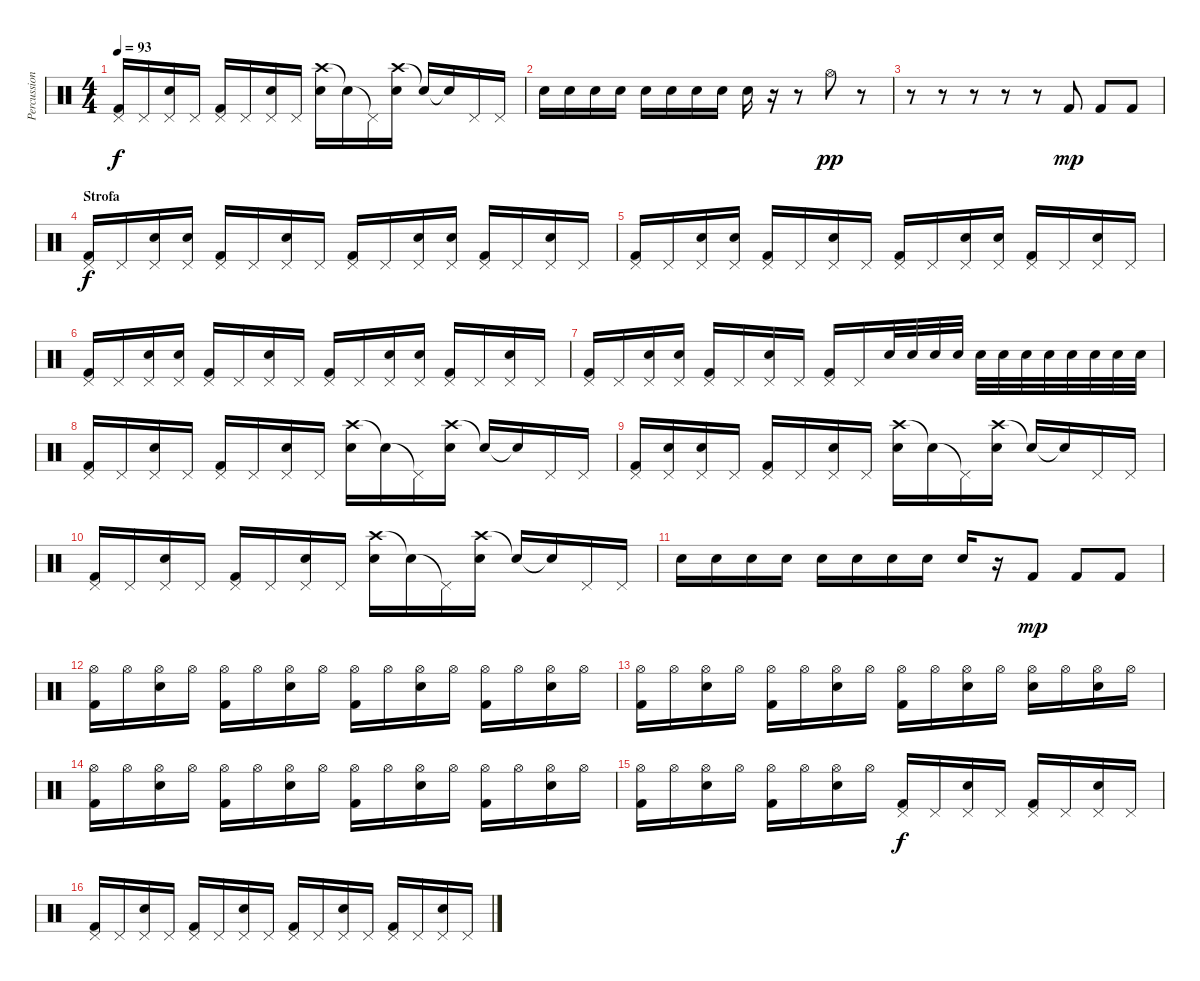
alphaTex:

\track ("Percussioni" "Percussion") {instrument percussion}
\staff {score}
\articulation defaults
\ts (4 4)
\tempo 93
\clef neutral
\ks c
("Pedal Hi-Hat (hit)" "Kick (hit) 2").16{dy f} "Pedal Hi-Hat (hit)".16 ("Pedal Hi-Hat (hit)" "Electric Snare (hit)").16 "Pedal Hi-Hat (hit)".16 ("Pedal Hi-Hat (hit)" "Kick (hit) 2").16 "Pedal Hi-Hat (hit)".16 ("Pedal Hi-Hat (hit)" "Electric Snare (hit)").16 "Pedal Hi-Hat (hit)".16 ("Crash high (hit)" "Electric Snare (hit)").16 "Snare (hit)"{t}.16 "Pedal Hi-Hat (hit)"{t}.16 ("Crash high (hit)" "Electric Snare (hit)").16 "Electric Snare (hit)"{t}.16 "Snare (hit)"{t}.16 "Pedal Hi-Hat (hit)".16 "Pedal Hi-Hat (hit)".16 |
"Electric Snare (hit)".16 "Electric Snare (hit)".16 "Electric Snare (hit)".16 "Electric Snare (hit)".16 "Electric Snare (hit)".16 "Electric Snare (hit)".16 "Electric Snare (hit)".16 "Electric Snare (hit)".16 "Electric Snare (hit)".16 r.16 r.8 "Hi-Hat (open)".8{dy pp} r.8 |
r.8 r.8 r.8 r.8 r.8 "Kick (hit) 2".8{dy mp} "Kick (hit) 2".8 "Kick (hit) 2".8 |
\section ("" "Strofa")
("Pedal Hi-Hat (hit)" "Kick (hit) 2").16{dy f} "Pedal Hi-Hat (hit)".16 ("Pedal Hi-Hat (hit)" "Electric Snare (hit)").16 ("Pedal Hi-Hat (hit)" "Electric Snare (hit)").16 ("Pedal Hi-Hat (hit)" "Kick (hit) 2").16 "Pedal Hi-Hat (hit)".16 ("Pedal Hi-Hat (hit)" "Electric Snare (hit)").16 "Pedal Hi-Hat (hit)".16 ("Pedal Hi-Hat (hit)" "Kick (hit) 2").16 "Pedal Hi-Hat (hit)".16 ("Pedal Hi-Hat (hit)" "Electric Snare (hit)").16 ("Pedal Hi-Hat (hit)" "Electric Snare (hit)").16 ("Pedal Hi-Hat (hit)" "Kick (hit) 2").16 "Pedal Hi-Hat (hit)".16 ("Pedal Hi-Hat (hit)" "Electric Snare (hit)").16 "Pedal Hi-Hat (hit)".16 |
("Pedal Hi-Hat (hit)" "Kick (hit) 2").16 "Pedal Hi-Hat (hit)".16 ("Pedal Hi-Hat (hit)" "Electric Snare (hit)").16 ("Pedal Hi-Hat (hit)" "Electric Snare (hit)").16 ("Pedal Hi-Hat (hit)" "Kick (hit) 2").16 "Pedal Hi-Hat (hit)".16 ("Pedal Hi-Hat (hit)" "Electric Snare (hit)").16 "Pedal Hi-Hat (hit)".16 ("Pedal Hi-Hat (hit)" "Kick (hit) 2").16 "Pedal Hi-Hat (hit)".16 ("Pedal Hi-Hat (hit)" "Electric Snare (hit)").16 ("Pedal Hi-Hat (hit)" "Electric Snare (hit)").16 ("Pedal Hi-Hat (hit)" "Kick (hit) 2").16 "Pedal Hi-Hat (hit)".16 ("Pedal Hi-Hat (hit)" "Electric Snare (hit)").16 "Pedal Hi-Hat (hit)".16 |
("Pedal Hi-Hat (hit)" "Kick (hit) 2").16 "Pedal Hi-Hat (hit)".16 ("Pedal Hi-Hat (hit)" "Electric Snare (hit)").16 ("Pedal Hi-Hat (hit)" "Electric Snare (hit)").16 ("Pedal Hi-Hat (hit)" "Kick (hit) 2").16 "Pedal Hi-Hat (hit)".16 ("Pedal Hi-Hat (hit)" "Electric Snare (hit)").16 "Pedal Hi-Hat (hit)".16 ("Pedal Hi-Hat (hit)" "Kick (hit) 2").16 "Pedal Hi-Hat (hit)".16 ("Pedal Hi-Hat (hit)" "Electric Snare (hit)").16 ("Pedal Hi-Hat (hit)" "Electric Snare (hit)").16 ("Pedal Hi-Hat (hit)" "Kick (hit) 2").16 "Pedal Hi-Hat (hit)".16 ("Pedal Hi-Hat (hit)" "Electric Snare (hit)").16 "Pedal Hi-Hat (hit)".16 |
("Pedal Hi-Hat (hit)" "Kick (hit) 2").16 "Pedal Hi-Hat (hit)".16 ("Pedal Hi-Hat (hit)" "Electric Snare (hit)").16 ("Pedal Hi-Hat (hit)" "Electric Snare (hit)").16 ("Pedal Hi-Hat (hit)" "Kick (hit) 2").16 "Pedal Hi-Hat (hit)".16 ("Pedal Hi-Hat (hit)" "Electric Snare (hit)").16 "Pedal Hi-Hat (hit)".16 ("Pedal Hi-Hat (hit)" "Kick (hit) 2").16 "Pedal Hi-Hat (hit)".16 "Electric Snare (hit)".32 "Electric Snare (hit)".32 "Electric Snare (hit)".32 "Electric Snare (hit)".32 "Electric Snare (hit)".32 "Electric Snare (hit)".32 "Electric Snare (hit)".32 "Electric Snare (hit)".32 "Electric Snare (hit)".32 "Electric Snare (hit)".32 "Electric Snare (hit)".32 "Electric Snare (hit)".32 |
("Pedal Hi-Hat (hit)" "Kick (hit) 2").16 "Pedal Hi-Hat (hit)".16 ("Pedal Hi-Hat (hit)" "Electric Snare (hit)").16 "Pedal Hi-Hat (hit)".16 ("Pedal Hi-Hat (hit)" "Kick (hit) 2").16 "Pedal Hi-Hat (hit)".16 ("Pedal Hi-Hat (hit)" "Electric Snare (hit)").16 "Pedal Hi-Hat (hit)".16 ("Crash high (hit)" "Electric Snare (hit)").16 "Snare (hit)"{t}.16 "Pedal Hi-Hat (hit)"{t}.16 ("Crash high (hit)" "Electric Snare (hit)").16 "Electric Snare (hit)"{t}.16 "Snare (hit)"{t}.16 "Pedal Hi-Hat (hit)".16 "Pedal Hi-Hat (hit)".16 |
("Pedal Hi-Hat (hit)" "Kick (hit) 2").16 ("Pedal Hi-Hat (hit)" "Snare (hit)").16 ("Pedal Hi-Hat (hit)" "Electric Snare (hit)").16 "Pedal Hi-Hat (hit)".16 ("Pedal Hi-Hat (hit)" "Kick (hit) 2").16 "Pedal Hi-Hat (hit)".16 ("Pedal Hi-Hat (hit)" "Electric Snare (hit)").16 "Pedal Hi-Hat (hit)".16 ("Crash high (hit)" "Electric Snare (hit)").16 "Snare (hit)"{t}.16 "Pedal Hi-Hat (hit)"{t}.16 ("Crash high (hit)" "Electric Snare (hit)").16 "Electric Snare (hit)"{t}.16 "Snare (hit)"{t}.16 "Pedal Hi-Hat (hit)".16 "Pedal Hi-Hat (hit)".16 |
("Pedal Hi-Hat (hit)" "Kick (hit) 2").16 "Pedal Hi-Hat (hit)".16 ("Pedal Hi-Hat (hit)" "Electric Snare (hit)").16 "Pedal Hi-Hat (hit)".16 ("Pedal Hi-Hat (hit)" "Kick (hit) 2").16 "Pedal Hi-Hat (hit)".16 ("Pedal Hi-Hat (hit)" "Electric Snare (hit)").16 "Pedal Hi-Hat (hit)".16 ("Crash high (hit)" "Electric Snare (hit)").16 "Snare (hit)"{t}.16 "Pedal Hi-Hat (hit)"{t}.16 ("Crash high (hit)" "Electric Snare (hit)").16 "Electric Snare (hit)"{t}.16 "Snare (hit)"{t}.16 "Pedal Hi-Hat (hit)".16 "Pedal Hi-Hat (hit)".16 |
"Electric Snare (hit)".16 "Electric Snare (hit)".16 "Electric Snare (hit)".16 "Electric Snare (hit)".16 "Electric Snare (hit)".16 "Electric Snare (hit)".16 "Electric Snare (hit)".16 "Electric Snare (hit)".16 "Electric Snare (hit)".16 r.16 "Kick (hit) 2".8{dy mp} "Kick (hit) 2".8 "Kick (hit) 2".8 |
("Hi-Hat (open)" "Kick (hit) 2").16 "Hi-Hat (open)".16 ("Hi-Hat (open)" "Electric Snare (hit)").16 "Hi-Hat (open)".16 ("Hi-Hat (open)" "Kick (hit) 2").16 "Hi-Hat (open)".16 ("Hi-Hat (open)" "Electric Snare (hit)").16 "Hi-Hat (open)".16 ("Hi-Hat (open)" "Kick (hit) 2").16 "Hi-Hat (open)".16 ("Hi-Hat (open)" "Electric Snare (hit)").16 "Hi-Hat (open)".16 ("Hi-Hat (open)" "Kick (hit) 2").16 "Hi-Hat (open)".16 ("Hi-Hat (open)" "Electric Snare (hit)").16 "Hi-Hat (open)".16 |
("Hi-Hat (open)" "Kick (hit) 2").16 "Hi-Hat (open)".16 ("Hi-Hat (open)" "Electric Snare (hit)").16 "Hi-Hat (open)".16 ("Hi-Hat (open)" "Kick (hit) 2").16 "Hi-Hat (open)".16 ("Hi-Hat (open)" "Electric Snare (hit)").16 "Hi-Hat (open)".16 ("Hi-Hat (open)" "Kick (hit) 2").16 "Hi-Hat (open)".16 ("Hi-Hat (open)" "Electric Snare (hit)").16 "Hi-Hat (open)".16 ("Hi-Hat (open)" "Electric Snare (hit)").16 "Hi-Hat (open)".16 ("Hi-Hat (open)" "Electric Snare (hit)").16 "Hi-Hat (open)".16 |
("Hi-Hat (open)" "Kick (hit) 2").16 "Hi-Hat (open)".16 ("Hi-Hat (open)" "Electric Snare (hit)").16 "Hi-Hat (open)".16 ("Hi-Hat (open)" "Kick (hit) 2").16 "Hi-Hat (open)".16 ("Hi-Hat (open)" "Electric Snare (hit)").16 "Hi-Hat (open)".16 ("Hi-Hat (open)" "Kick (hit) 2").16 "Hi-Hat (open)".16 ("Hi-Hat (open)" "Electric Snare (hit)").16 "Hi-Hat (open)".16 ("Hi-Hat (open)" "Kick (hit) 2").16 "Hi-Hat (open)".16 ("Hi-Hat (open)" "Electric Snare (hit)").16 "Hi-Hat (open)".16 |
("Hi-Hat (open)" "Kick (hit) 2").16 "Hi-Hat (open)".16 ("Hi-Hat (open)" "Electric Snare (hit)").16 "Hi-Hat (open)".16 ("Hi-Hat (open)" "Kick (hit) 2").16 "Hi-Hat (open)".16 ("Hi-Hat (open)" "Electric Snare (hit)").16 "Hi-Hat (open)".16 ("Pedal Hi-Hat (hit)" "Kick (hit) 2").16{dy f} "Pedal Hi-Hat (hit)".16 ("Pedal Hi-Hat (hit)" "Electric Snare (hit)").16 "Pedal Hi-Hat (hit)".16 ("Pedal Hi-Hat (hit)" "Kick (hit) 2").16 "Pedal Hi-Hat (hit)".16 ("Pedal Hi-Hat (hit)" "Electric Snare (hit)").16 "Pedal Hi-Hat (hit)".16 |
("Pedal Hi-Hat (hit)" "Kick (hit) 2").16 "Pedal Hi-Hat (hit)".16 ("Pedal Hi-Hat (hit)" "Electric Snare (hit)").16 "Pedal Hi-Hat (hit)".16 ("Pedal Hi-Hat (hit)" "Kick (hit) 2").16 "Pedal Hi-Hat (hit)".16 ("Pedal Hi-Hat (hit)" "Electric Snare (hit)").16 "Pedal Hi-Hat (hit)".16 ("Pedal Hi-Hat (hit)" "Kick (hit) 2").16 "Pedal Hi-Hat (hit)".16 ("Pedal Hi-Hat (hit)" "Electric Snare (hit)").16 "Pedal Hi-Hat (hit)".16 ("Pedal Hi-Hat (hit)" "Kick (hit) 2").16 "Pedal Hi-Hat (hit)".16 ("Pedal Hi-Hat (hit)" "Electric Snare (hit)").16 "Pedal Hi-Hat (hit)".16
